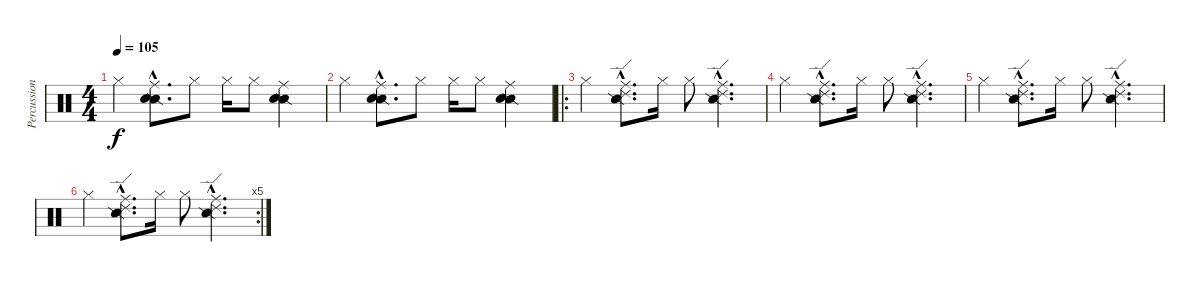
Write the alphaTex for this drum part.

\track ("Percussion" "Percussion") {instrument percussion}
\staff {score}
\articulation defaults
\ts (4 4)
\tempo 105
\clef neutral
\ks c "Hi-Hat (closed)".4{dy f}
("Snare (side stick) 2"{hac} "Ride (middle)"{hac} "Snare (hit) 2"{hac}).8{d} "Hi-Hat (closed)".8 "Hi-Hat (closed)".16 "Hi-Hat (closed)".8 ("Snare (side stick) 2" "Ride (middle)" "Snare (hit) 2").4 |
"Hi-Hat (closed)".4 ("Snare (side stick) 2"{hac} "Ride (middle)"{hac} "Snare (hit) 2"{hac}).8{d} "Hi-Hat (closed)".8 "Hi-Hat (closed)".16 "Hi-Hat (closed)".8 ("Snare (side stick) 2" "Ride (middle)" "Snare (hit) 2").4 |
\ro "Hi-Hat (closed)".4
("Snare (side stick) 2"{hac} "Ride (middle)"{hac} "Ride (edge) 2"{hac}).8{d} "Hi-Hat (closed)".16 "Hi-Hat (closed)".8 ("Snare (side stick) 2"{hac} "Ride (middle)"{hac} "Ride (edge) 2"{hac}).4{d} |
"Hi-Hat (closed)".4 ("Snare (side stick) 2"{hac} "Ride (middle)"{hac} "Ride (edge) 2"{hac}).8{d} "Hi-Hat (closed)".16 "Hi-Hat (closed)".8 ("Snare (side stick) 2"{hac} "Ride (middle)"{hac} "Ride (edge) 2"{hac}).4{d} |
"Hi-Hat (closed)".4 ("Snare (side stick) 2"{hac} "Ride (middle)"{hac} "Ride (edge) 2"{hac}).8{d} "Hi-Hat (closed)".16 "Hi-Hat (closed)".8 ("Snare (side stick) 2"{hac} "Ride (middle)"{hac} "Ride (edge) 2"{hac}).4{d} |
\rc 5 "Hi-Hat (closed)".4
("Snare (side stick) 2"{hac} "Ride (middle)"{hac} "Ride (edge) 2"{hac}).8{d} "Hi-Hat (closed)".16 "Hi-Hat (closed)".8 ("Snare (side stick) 2"{hac} "Ride (middle)"{hac} "Ride (edge) 2"{hac}).4{d}
